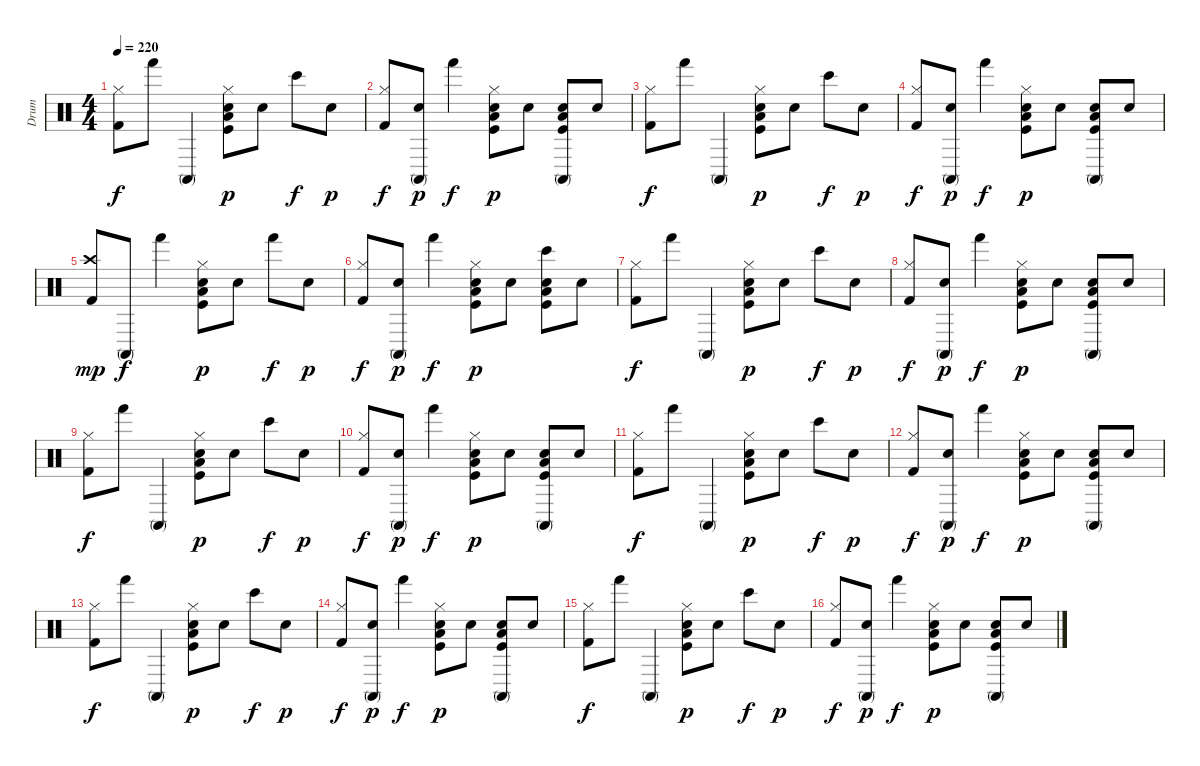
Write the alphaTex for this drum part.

\track ("Drum" "Drum") {instrument percussion}
\staff {score}
\articulation defaults
\ts (4 4)
\tempo 220
\clef neutral
\ks c
("Hi-Hat (closed)" "Kick (hit) 2").8{dy f} "Hand (hit)".8 "Conga high (mute)".4 ("Hi-Hat (closed)" "Low Floor Tom (hit)" "Electric Snare (hit)" "Kick (hit)").8{dy p} "Electric Snare (hit)".8 "Bongo High (hit)".8{dy f} "Electric Snare (hit)".8{dy p} |
("Hi-Hat (closed)" "Kick (hit) 2").8{dy f} ("Conga high (mute)" "Electric Snare (hit)").8{dy p} "Hand (hit)".4{dy f} ("Hi-Hat (closed)" "Low Floor Tom (hit)" "Electric Snare (hit)" "Kick (hit)").8{dy p} "Electric Snare (hit)".8 ("Low Floor Tom (hit)" "Conga high (mute)" "Electric Snare (hit)" "Kick (hit)").8 "Electric Snare (hit)".8 |
("Hi-Hat (closed)" "Kick (hit) 2").8{dy f} "Hand (hit)".8 "Conga high (mute)".4 ("Hi-Hat (closed)" "Low Floor Tom (hit)" "Electric Snare (hit)" "Kick (hit)").8{dy p} "Electric Snare (hit)".8 "Bongo High (hit)".8{dy f} "Electric Snare (hit)".8{dy p} |
("Hi-Hat (closed)" "Kick (hit) 2").8{dy f} ("Conga high (mute)" "Electric Snare (hit)").8{dy p} "Hand (hit)".4{dy f} ("Hi-Hat (closed)" "Low Floor Tom (hit)" "Electric Snare (hit)" "Kick (hit)").8{dy p} "Electric Snare (hit)".8 ("Low Floor Tom (hit)" "Conga high (mute)" "Electric Snare (hit)" "Kick (hit)").8 "Electric Snare (hit)".8 |
("Crash high (hit)" "Kick (hit) 2").8{dy mp} "Conga high (mute)".8{dy f} "Hand (hit)".4 ("Hi-Hat (closed)" "Low Floor Tom (hit)" "Electric Snare (hit)" "Kick (hit)").8{dy p} "Electric Snare (hit)".8 "Hand (hit)".8{dy f} "Electric Snare (hit)".8{dy p} |
("Hi-Hat (closed)" "Kick (hit) 2").8{dy f} ("Conga high (mute)" "Electric Snare (hit)").8{dy p} "Hand (hit)".4{dy f} ("Hi-Hat (closed)" "Low Floor Tom (hit)" "Electric Snare (hit)" "Kick (hit)").8{dy p} "Electric Snare (hit)".8 ("Low Floor Tom (hit)" "Bongo High (hit)" "Electric Snare (hit)" "Kick (hit)").8 "Electric Snare (hit)".8 |
("Hi-Hat (closed)" "Kick (hit) 2").8{dy f} "Hand (hit)".8 "Conga high (mute)".4 ("Hi-Hat (closed)" "Low Floor Tom (hit)" "Electric Snare (hit)" "Kick (hit)").8{dy p} "Electric Snare (hit)".8 "Bongo High (hit)".8{dy f} "Electric Snare (hit)".8{dy p} |
("Hi-Hat (closed)" "Kick (hit) 2").8{dy f} ("Conga high (mute)" "Electric Snare (hit)").8{dy p} "Hand (hit)".4{dy f} ("Hi-Hat (closed)" "Low Floor Tom (hit)" "Electric Snare (hit)" "Kick (hit)").8{dy p} "Electric Snare (hit)".8 ("Low Floor Tom (hit)" "Conga high (mute)" "Electric Snare (hit)" "Kick (hit)").8 "Electric Snare (hit)".8 |
("Hi-Hat (closed)" "Kick (hit) 2").8{dy f} "Hand (hit)".8 "Conga high (mute)".4 ("Hi-Hat (closed)" "Low Floor Tom (hit)" "Electric Snare (hit)" "Kick (hit)").8{dy p} "Electric Snare (hit)".8 "Bongo High (hit)".8{dy f} "Electric Snare (hit)".8{dy p} |
("Hi-Hat (closed)" "Kick (hit) 2").8{dy f} ("Conga high (mute)" "Electric Snare (hit)").8{dy p} "Hand (hit)".4{dy f} ("Hi-Hat (closed)" "Low Floor Tom (hit)" "Electric Snare (hit)" "Kick (hit)").8{dy p} "Electric Snare (hit)".8 ("Low Floor Tom (hit)" "Conga high (mute)" "Electric Snare (hit)" "Kick (hit)").8 "Electric Snare (hit)".8 |
("Hi-Hat (closed)" "Kick (hit) 2").8{dy f} "Hand (hit)".8 "Conga high (mute)".4 ("Hi-Hat (closed)" "Low Floor Tom (hit)" "Electric Snare (hit)" "Kick (hit)").8{dy p} "Electric Snare (hit)".8 "Bongo High (hit)".8{dy f} "Electric Snare (hit)".8{dy p} |
("Hi-Hat (closed)" "Kick (hit) 2").8{dy f} ("Conga high (mute)" "Electric Snare (hit)").8{dy p} "Hand (hit)".4{dy f} ("Hi-Hat (closed)" "Low Floor Tom (hit)" "Electric Snare (hit)" "Kick (hit)").8{dy p} "Electric Snare (hit)".8 ("Low Floor Tom (hit)" "Conga high (mute)" "Electric Snare (hit)" "Kick (hit)").8 "Electric Snare (hit)".8 |
("Hi-Hat (closed)" "Kick (hit) 2").8{dy f} "Hand (hit)".8 "Conga high (mute)".4 ("Hi-Hat (closed)" "Low Floor Tom (hit)" "Electric Snare (hit)" "Kick (hit)").8{dy p} "Electric Snare (hit)".8 "Bongo High (hit)".8{dy f} "Electric Snare (hit)".8{dy p} |
("Hi-Hat (closed)" "Kick (hit) 2").8{dy f} ("Conga high (mute)" "Electric Snare (hit)").8{dy p} "Hand (hit)".4{dy f} ("Hi-Hat (closed)" "Low Floor Tom (hit)" "Electric Snare (hit)" "Kick (hit)").8{dy p} "Electric Snare (hit)".8 ("Low Floor Tom (hit)" "Conga high (mute)" "Electric Snare (hit)" "Kick (hit)").8 "Electric Snare (hit)".8 |
("Hi-Hat (closed)" "Kick (hit) 2").8{dy f} "Hand (hit)".8 "Conga high (mute)".4 ("Hi-Hat (closed)" "Low Floor Tom (hit)" "Electric Snare (hit)" "Kick (hit)").8{dy p} "Electric Snare (hit)".8 "Bongo High (hit)".8{dy f} "Electric Snare (hit)".8{dy p} |
("Hi-Hat (closed)" "Kick (hit) 2").8{dy f} ("Conga high (mute)" "Electric Snare (hit)").8{dy p} "Hand (hit)".4{dy f} ("Hi-Hat (closed)" "Low Floor Tom (hit)" "Electric Snare (hit)" "Kick (hit)").8{dy p} "Electric Snare (hit)".8 ("Low Floor Tom (hit)" "Conga high (mute)" "Electric Snare (hit)" "Kick (hit)").8 "Electric Snare (hit)".8
